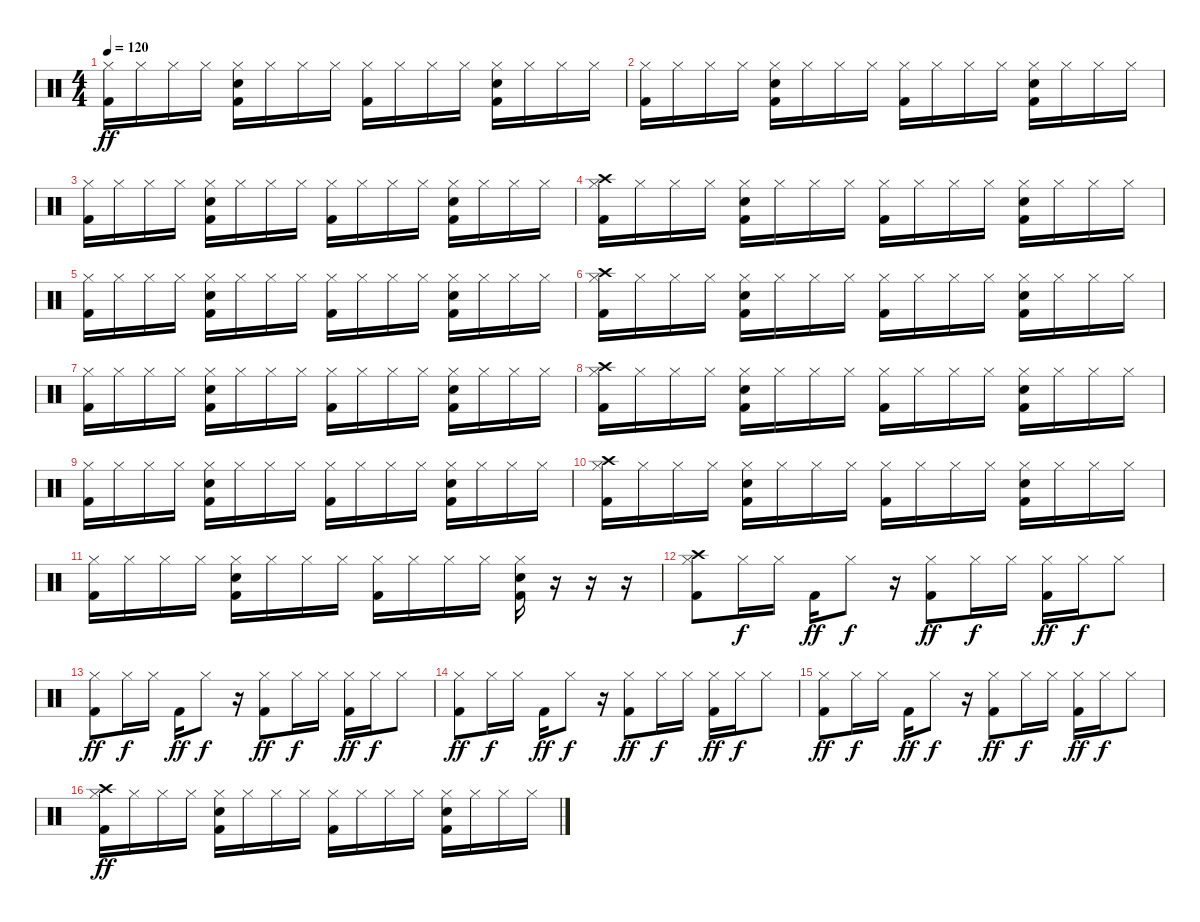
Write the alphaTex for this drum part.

\track "" {instrument percussion}
\staff {score}
\articulation defaults
\ts (4 4)
\tempo 120
\clef neutral
\ks c
("Hi-Hat (closed)" "Kick (hit) 2").16{dy ff} "Hi-Hat (closed)".16 "Hi-Hat (closed)".16 "Hi-Hat (closed)".16 ("Hi-Hat (closed)" "Electric Snare (hit)" "Kick (hit) 2").16 "Hi-Hat (closed)".16 "Hi-Hat (closed)".16 "Hi-Hat (closed)".16 ("Hi-Hat (closed)" "Kick (hit) 2").16 "Hi-Hat (closed)".16 "Hi-Hat (closed)".16 "Hi-Hat (closed)".16 ("Hi-Hat (closed)" "Electric Snare (hit)" "Kick (hit) 2").16 "Hi-Hat (closed)".16 "Hi-Hat (closed)".16 "Hi-Hat (closed)".16 |
("Hi-Hat (closed)" "Kick (hit) 2").16 "Hi-Hat (closed)".16 "Hi-Hat (closed)".16 "Hi-Hat (closed)".16 ("Hi-Hat (closed)" "Electric Snare (hit)" "Kick (hit) 2").16 "Hi-Hat (closed)".16 "Hi-Hat (closed)".16 "Hi-Hat (closed)".16 ("Hi-Hat (closed)" "Kick (hit) 2").16 "Hi-Hat (closed)".16 "Hi-Hat (closed)".16 "Hi-Hat (closed)".16 ("Hi-Hat (closed)" "Electric Snare (hit)" "Kick (hit) 2").16 "Hi-Hat (closed)".16 "Hi-Hat (closed)".16 "Hi-Hat (closed)".16 |
("Hi-Hat (closed)" "Kick (hit) 2").16 "Hi-Hat (closed)".16 "Hi-Hat (closed)".16 "Hi-Hat (closed)".16 ("Hi-Hat (closed)" "Electric Snare (hit)" "Kick (hit) 2").16 "Hi-Hat (closed)".16 "Hi-Hat (closed)".16 "Hi-Hat (closed)".16 ("Hi-Hat (closed)" "Kick (hit) 2").16 "Hi-Hat (closed)".16 "Hi-Hat (closed)".16 "Hi-Hat (closed)".16 ("Hi-Hat (closed)" "Electric Snare (hit)" "Kick (hit) 2").16 "Hi-Hat (closed)".16 "Hi-Hat (closed)".16 "Hi-Hat (closed)".16 |
("Crash high (hit)" "Hi-Hat (closed)" "Kick (hit) 2").16 "Hi-Hat (closed)".16 "Hi-Hat (closed)".16 "Hi-Hat (closed)".16 ("Hi-Hat (closed)" "Electric Snare (hit)" "Kick (hit) 2").16 "Hi-Hat (closed)".16 "Hi-Hat (closed)".16 "Hi-Hat (closed)".16 ("Hi-Hat (closed)" "Kick (hit) 2").16 "Hi-Hat (closed)".16 "Hi-Hat (closed)".16 "Hi-Hat (closed)".16 ("Hi-Hat (closed)" "Electric Snare (hit)" "Kick (hit) 2").16 "Hi-Hat (closed)".16 "Hi-Hat (closed)".16 "Hi-Hat (closed)".16 |
("Hi-Hat (closed)" "Kick (hit) 2").16 "Hi-Hat (closed)".16 "Hi-Hat (closed)".16 "Hi-Hat (closed)".16 ("Hi-Hat (closed)" "Electric Snare (hit)" "Kick (hit) 2").16 "Hi-Hat (closed)".16 "Hi-Hat (closed)".16 "Hi-Hat (closed)".16 ("Hi-Hat (closed)" "Kick (hit) 2").16 "Hi-Hat (closed)".16 "Hi-Hat (closed)".16 "Hi-Hat (closed)".16 ("Hi-Hat (closed)" "Electric Snare (hit)" "Kick (hit) 2").16 "Hi-Hat (closed)".16 "Hi-Hat (closed)".16 "Hi-Hat (closed)".16 |
("Crash high (hit)" "Hi-Hat (closed)" "Kick (hit) 2").16 "Hi-Hat (closed)".16 "Hi-Hat (closed)".16 "Hi-Hat (closed)".16 ("Hi-Hat (closed)" "Electric Snare (hit)" "Kick (hit) 2").16 "Hi-Hat (closed)".16 "Hi-Hat (closed)".16 "Hi-Hat (closed)".16 ("Hi-Hat (closed)" "Kick (hit) 2").16 "Hi-Hat (closed)".16 "Hi-Hat (closed)".16 "Hi-Hat (closed)".16 ("Hi-Hat (closed)" "Electric Snare (hit)" "Kick (hit) 2").16 "Hi-Hat (closed)".16 "Hi-Hat (closed)".16 "Hi-Hat (closed)".16 |
("Hi-Hat (closed)" "Kick (hit) 2").16 "Hi-Hat (closed)".16 "Hi-Hat (closed)".16 "Hi-Hat (closed)".16 ("Hi-Hat (closed)" "Electric Snare (hit)" "Kick (hit) 2").16 "Hi-Hat (closed)".16 "Hi-Hat (closed)".16 "Hi-Hat (closed)".16 ("Hi-Hat (closed)" "Kick (hit) 2").16 "Hi-Hat (closed)".16 "Hi-Hat (closed)".16 "Hi-Hat (closed)".16 ("Hi-Hat (closed)" "Electric Snare (hit)" "Kick (hit) 2").16 "Hi-Hat (closed)".16 "Hi-Hat (closed)".16 "Hi-Hat (closed)".16 |
("Crash high (hit)" "Hi-Hat (closed)" "Kick (hit) 2").16 "Hi-Hat (closed)".16 "Hi-Hat (closed)".16 "Hi-Hat (closed)".16 ("Hi-Hat (closed)" "Electric Snare (hit)" "Kick (hit) 2").16 "Hi-Hat (closed)".16 "Hi-Hat (closed)".16 "Hi-Hat (closed)".16 ("Hi-Hat (closed)" "Kick (hit) 2").16 "Hi-Hat (closed)".16 "Hi-Hat (closed)".16 "Hi-Hat (closed)".16 ("Hi-Hat (closed)" "Electric Snare (hit)" "Kick (hit) 2").16 "Hi-Hat (closed)".16 "Hi-Hat (closed)".16 "Hi-Hat (closed)".16 |
("Hi-Hat (closed)" "Kick (hit) 2").16 "Hi-Hat (closed)".16 "Hi-Hat (closed)".16 "Hi-Hat (closed)".16 ("Hi-Hat (closed)" "Electric Snare (hit)" "Kick (hit) 2").16 "Hi-Hat (closed)".16 "Hi-Hat (closed)".16 "Hi-Hat (closed)".16 ("Hi-Hat (closed)" "Kick (hit) 2").16 "Hi-Hat (closed)".16 "Hi-Hat (closed)".16 "Hi-Hat (closed)".16 ("Hi-Hat (closed)" "Electric Snare (hit)" "Kick (hit) 2").16 "Hi-Hat (closed)".16 "Hi-Hat (closed)".16 "Hi-Hat (closed)".16 |
("Crash high (hit)" "Hi-Hat (closed)" "Kick (hit) 2").16 "Hi-Hat (closed)".16 "Hi-Hat (closed)".16 "Hi-Hat (closed)".16 ("Hi-Hat (closed)" "Electric Snare (hit)" "Kick (hit) 2").16 "Hi-Hat (closed)".16 "Hi-Hat (closed)".16 "Hi-Hat (closed)".16 ("Hi-Hat (closed)" "Kick (hit) 2").16 "Hi-Hat (closed)".16 "Hi-Hat (closed)".16 "Hi-Hat (closed)".16 ("Hi-Hat (closed)" "Electric Snare (hit)" "Kick (hit) 2").16 "Hi-Hat (closed)".16 "Hi-Hat (closed)".16 "Hi-Hat (closed)".16 |
("Hi-Hat (closed)" "Kick (hit) 2").16 "Hi-Hat (closed)".16 "Hi-Hat (closed)".16 "Hi-Hat (closed)".16 ("Hi-Hat (closed)" "Electric Snare (hit)" "Kick (hit) 2").16 "Hi-Hat (closed)".16 "Hi-Hat (closed)".16 "Hi-Hat (closed)".16 ("Hi-Hat (closed)" "Kick (hit) 2").16 "Hi-Hat (closed)".16 "Hi-Hat (closed)".16 "Hi-Hat (closed)".16 ("Hi-Hat (closed)" "Electric Snare (hit)" "Kick (hit) 2").16 r.16 r.16 r.16 |
("Crash high (hit)" "Hi-Hat (closed)" "Kick (hit) 2").8 "Hi-Hat (closed)".16{dy f} "Hi-Hat (closed)".16 "Kick (hit) 2".16{dy ff} "Hi-Hat (closed)".8{dy f} r.16 ("Hi-Hat (closed)" "Kick (hit) 2").8{dy ff} "Hi-Hat (closed)".16{dy f} "Hi-Hat (closed)".16 ("Hi-Hat (closed)" "Kick (hit) 2").16{dy ff} "Hi-Hat (closed)".16{dy f} "Hi-Hat (closed)".8 |
("Hi-Hat (closed)" "Kick (hit) 2").8{dy ff} "Hi-Hat (closed)".16{dy f} "Hi-Hat (closed)".16 "Kick (hit) 2".16{dy ff} "Hi-Hat (closed)".8{dy f} r.16 ("Hi-Hat (closed)" "Kick (hit) 2").8{dy ff} "Hi-Hat (closed)".16{dy f} "Hi-Hat (closed)".16 ("Hi-Hat (closed)" "Kick (hit) 2").16{dy ff} "Hi-Hat (closed)".16{dy f} "Hi-Hat (closed)".8 |
("Hi-Hat (closed)" "Kick (hit) 2").8{dy ff} "Hi-Hat (closed)".16{dy f} "Hi-Hat (closed)".16 "Kick (hit) 2".16{dy ff} "Hi-Hat (closed)".8{dy f} r.16 ("Hi-Hat (closed)" "Kick (hit) 2").8{dy ff} "Hi-Hat (closed)".16{dy f} "Hi-Hat (closed)".16 ("Hi-Hat (closed)" "Kick (hit) 2").16{dy ff} "Hi-Hat (closed)".16{dy f} "Hi-Hat (closed)".8 |
("Hi-Hat (closed)" "Kick (hit) 2").8{dy ff} "Hi-Hat (closed)".16{dy f} "Hi-Hat (closed)".16 "Kick (hit) 2".16{dy ff} "Hi-Hat (closed)".8{dy f} r.16 ("Hi-Hat (closed)" "Kick (hit) 2").8{dy ff} "Hi-Hat (closed)".16{dy f} "Hi-Hat (closed)".16 ("Hi-Hat (closed)" "Kick (hit) 2").16{dy ff} "Hi-Hat (closed)".16{dy f} "Hi-Hat (closed)".8 |
("Crash high (hit)" "Hi-Hat (closed)" "Kick (hit) 2").16{dy ff} "Hi-Hat (closed)".16 "Hi-Hat (closed)".16 "Hi-Hat (closed)".16 ("Hi-Hat (closed)" "Electric Snare (hit)" "Kick (hit) 2").16 "Hi-Hat (closed)".16 "Hi-Hat (closed)".16 "Hi-Hat (closed)".16 ("Hi-Hat (closed)" "Kick (hit) 2").16 "Hi-Hat (closed)".16 "Hi-Hat (closed)".16 "Hi-Hat (closed)".16 ("Hi-Hat (closed)" "Electric Snare (hit)" "Kick (hit) 2").16 "Hi-Hat (closed)".16 "Hi-Hat (closed)".16 "Hi-Hat (closed)".16
